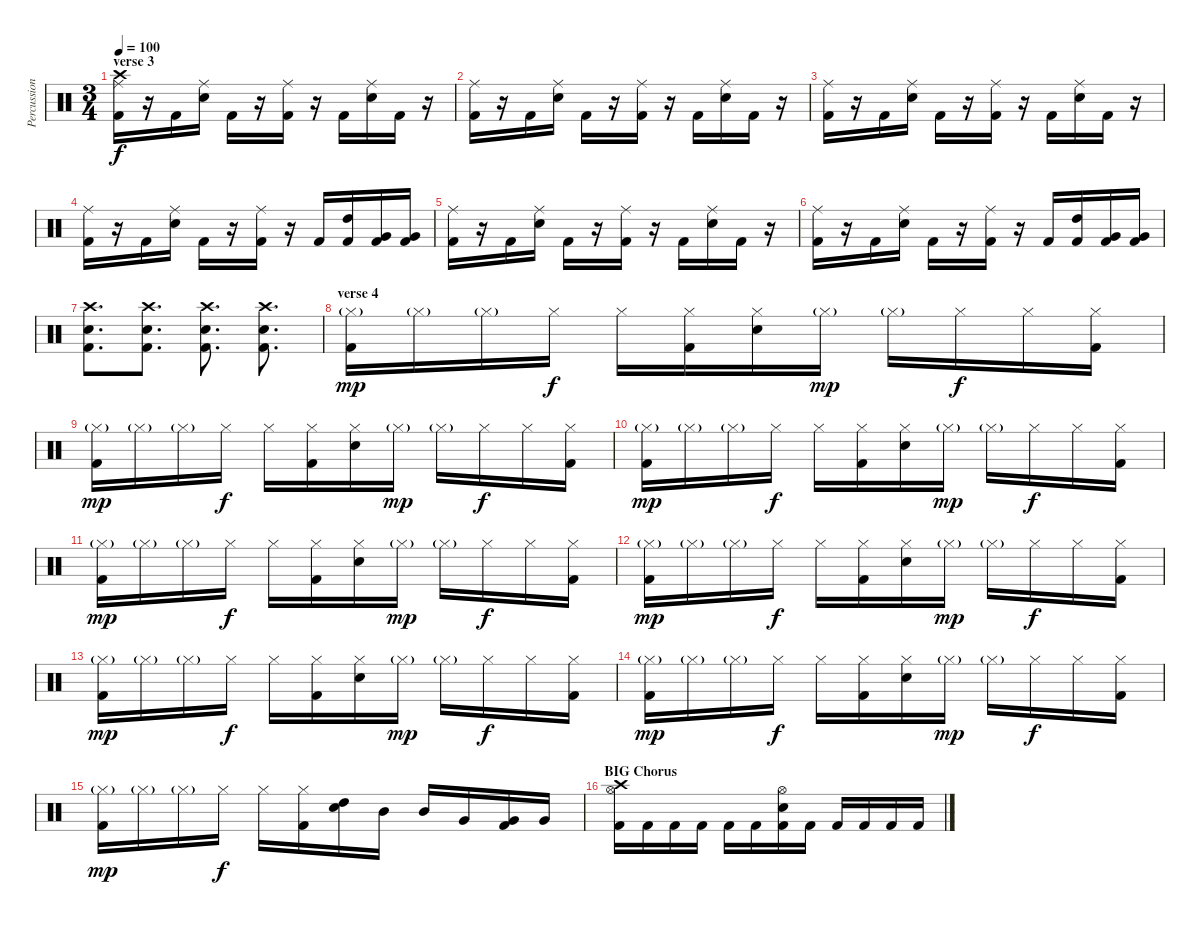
\track ("Percussions" "Percussion") {instrument percussion}
\staff {score}
\articulation defaults
\ts (3 4)
\section ("" "verse 3")
\tempo 100
\clef neutral
\ks c
("Crash high (hit)" "Ride (middle)" "Kick (hit) 2").16{dy f} r.16 "Kick (hit) 2".16 ("Ride (middle)" "Electric Snare (hit)").16 "Kick (hit) 2".16 r.16 ("Ride (middle)" "Kick (hit) 2").16 r.16 "Kick (hit) 2".16 ("Ride (middle)" "Electric Snare (hit)").16 "Kick (hit) 2".16 r.16 |
("Ride (middle)" "Kick (hit) 2").16 r.16 "Kick (hit) 2".16 ("Ride (middle)" "Electric Snare (hit)").16 "Kick (hit) 2".16 r.16 ("Ride (middle)" "Kick (hit) 2").16 r.16 "Kick (hit) 2".16 ("Ride (middle)" "Electric Snare (hit)").16 "Kick (hit) 2".16 r.16 |
("Ride (middle)" "Kick (hit) 2").16 r.16 "Kick (hit) 2".16 ("Ride (middle)" "Electric Snare (hit)").16 "Kick (hit) 2".16 r.16 ("Ride (middle)" "Kick (hit) 2").16 r.16 "Kick (hit) 2".16 ("Ride (middle)" "Electric Snare (hit)").16 "Kick (hit) 2".16 r.16 |
("Ride (middle)" "Kick (hit) 2").16 r.16 "Kick (hit) 2".16 ("Ride (middle)" "Electric Snare (hit)").16 "Kick (hit) 2".16 r.16 ("Ride (middle)" "Kick (hit) 2").16 r.16 "Kick (hit) 2".16 ("High Tom (hit)" "Kick (hit) 2").16 ("Very Low Tom (hit)" "Kick (hit) 2").16 ("Very Low Tom (hit)" "Kick (hit) 2").16 |
("Ride (middle)" "Kick (hit) 2").16 r.16 "Kick (hit) 2".16 ("Ride (middle)" "Electric Snare (hit)").16 "Kick (hit) 2".16 r.16 ("Ride (middle)" "Kick (hit) 2").16 r.16 "Kick (hit) 2".16 ("Ride (middle)" "Electric Snare (hit)").16 "Kick (hit) 2".16 r.16 |
("Ride (middle)" "Kick (hit) 2").16 r.16 "Kick (hit) 2".16 ("Ride (middle)" "Electric Snare (hit)").16 "Kick (hit) 2".16 r.16 ("Ride (middle)" "Kick (hit) 2").16 r.16 "Kick (hit) 2".16 ("High Tom (hit)" "Kick (hit) 2").16 ("Very Low Tom (hit)" "Kick (hit) 2").16 ("Very Low Tom (hit)" "Kick (hit) 2").16 |
("Crash high (hit)" "Electric Snare (hit)" "Kick (hit) 2").8{d} ("Crash high (hit)" "Electric Snare (hit)" "Kick (hit) 2").8{d} ("Crash high (hit)" "Electric Snare (hit)" "Kick (hit) 2").8{d} ("Crash high (hit)" "Electric Snare (hit)" "Kick (hit) 2").8{d} |
\section ("" "verse 4")
("Hi-Hat (closed)"{g} "Kick (hit) 2").16{dy mp} "Hi-Hat (closed)"{g}.16 "Hi-Hat (closed)"{g}.16 "Hi-Hat (closed)".16{dy f} "Hi-Hat (closed)".16 ("Hi-Hat (closed)" "Kick (hit) 2").16 ("Hi-Hat (closed)" "Electric Snare (hit)").16 "Hi-Hat (closed)"{g}.16{dy mp} "Hi-Hat (closed)"{g}.16 "Hi-Hat (closed)".16{dy f} "Hi-Hat (closed)".16 ("Hi-Hat (closed)" "Kick (hit) 2").16 |
("Hi-Hat (closed)"{g} "Kick (hit) 2").16{dy mp} "Hi-Hat (closed)"{g}.16 "Hi-Hat (closed)"{g}.16 "Hi-Hat (closed)".16{dy f} "Hi-Hat (closed)".16 ("Hi-Hat (closed)" "Kick (hit) 2").16 ("Hi-Hat (closed)" "Electric Snare (hit)").16 "Hi-Hat (closed)"{g}.16{dy mp} "Hi-Hat (closed)"{g}.16 "Hi-Hat (closed)".16{dy f} "Hi-Hat (closed)".16 ("Hi-Hat (closed)" "Kick (hit) 2").16 |
("Hi-Hat (closed)"{g} "Kick (hit) 2").16{dy mp} "Hi-Hat (closed)"{g}.16 "Hi-Hat (closed)"{g}.16 "Hi-Hat (closed)".16{dy f} "Hi-Hat (closed)".16 ("Hi-Hat (closed)" "Kick (hit) 2").16 ("Hi-Hat (closed)" "Electric Snare (hit)").16 "Hi-Hat (closed)"{g}.16{dy mp} "Hi-Hat (closed)"{g}.16 "Hi-Hat (closed)".16{dy f} "Hi-Hat (closed)".16 ("Hi-Hat (closed)" "Kick (hit) 2").16 |
("Hi-Hat (closed)"{g} "Kick (hit) 2").16{dy mp} "Hi-Hat (closed)"{g}.16 "Hi-Hat (closed)"{g}.16 "Hi-Hat (closed)".16{dy f} "Hi-Hat (closed)".16 ("Hi-Hat (closed)" "Kick (hit) 2").16 ("Hi-Hat (closed)" "Electric Snare (hit)").16 "Hi-Hat (closed)"{g}.16{dy mp} "Hi-Hat (closed)"{g}.16 "Hi-Hat (closed)".16{dy f} "Hi-Hat (closed)".16 ("Hi-Hat (closed)" "Kick (hit) 2").16 |
("Hi-Hat (closed)"{g} "Kick (hit) 2").16{dy mp} "Hi-Hat (closed)"{g}.16 "Hi-Hat (closed)"{g}.16 "Hi-Hat (closed)".16{dy f} "Hi-Hat (closed)".16 ("Hi-Hat (closed)" "Kick (hit) 2").16 ("Hi-Hat (closed)" "Electric Snare (hit)").16 "Hi-Hat (closed)"{g}.16{dy mp} "Hi-Hat (closed)"{g}.16 "Hi-Hat (closed)".16{dy f} "Hi-Hat (closed)".16 ("Hi-Hat (closed)" "Kick (hit) 2").16 |
("Hi-Hat (closed)"{g} "Kick (hit) 2").16{dy mp} "Hi-Hat (closed)"{g}.16 "Hi-Hat (closed)"{g}.16 "Hi-Hat (closed)".16{dy f} "Hi-Hat (closed)".16 ("Hi-Hat (closed)" "Kick (hit) 2").16 ("Hi-Hat (closed)" "Electric Snare (hit)").16 "Hi-Hat (closed)"{g}.16{dy mp} "Hi-Hat (closed)"{g}.16 "Hi-Hat (closed)".16{dy f} "Hi-Hat (closed)".16 ("Hi-Hat (closed)" "Kick (hit) 2").16 |
("Hi-Hat (closed)"{g} "Kick (hit) 2").16{dy mp} "Hi-Hat (closed)"{g}.16 "Hi-Hat (closed)"{g}.16 "Hi-Hat (closed)".16{dy f} "Hi-Hat (closed)".16 ("Hi-Hat (closed)" "Kick (hit) 2").16 ("Hi-Hat (closed)" "Electric Snare (hit)").16 "Hi-Hat (closed)"{g}.16{dy mp} "Hi-Hat (closed)"{g}.16 "Hi-Hat (closed)".16{dy f} "Hi-Hat (closed)".16 ("Hi-Hat (closed)" "Kick (hit) 2").16 |
("Hi-Hat (closed)"{g} "Kick (hit) 2").16{dy mp} "Hi-Hat (closed)"{g}.16 "Hi-Hat (closed)"{g}.16 "Hi-Hat (closed)".16{dy f} "Hi-Hat (closed)".16 ("Hi-Hat (closed)" "Kick (hit) 2").16 ("High Tom (hit)" "Electric Snare (hit)").16 "Mid Tom (hit)".16 "Mid Tom (hit)".16 "Very Low Tom (hit)".16 ("Very Low Tom (hit)" "Kick (hit) 2").16 "Very Low Tom (hit)".16 |
\section ("" "BIG Chorus")
("Crash high (hit)" "Hi-Hat (open)" "Kick (hit) 2").16 "Kick (hit) 2".16 "Kick (hit) 2".16 "Kick (hit) 2".16 "Kick (hit) 2".16 "Kick (hit) 2".16 ("Hi-Hat (open)" "Electric Snare (hit)" "Kick (hit) 2").16 "Kick (hit) 2".16 "Kick (hit) 2".16 "Kick (hit) 2".16 "Kick (hit) 2".16 "Kick (hit) 2".16
